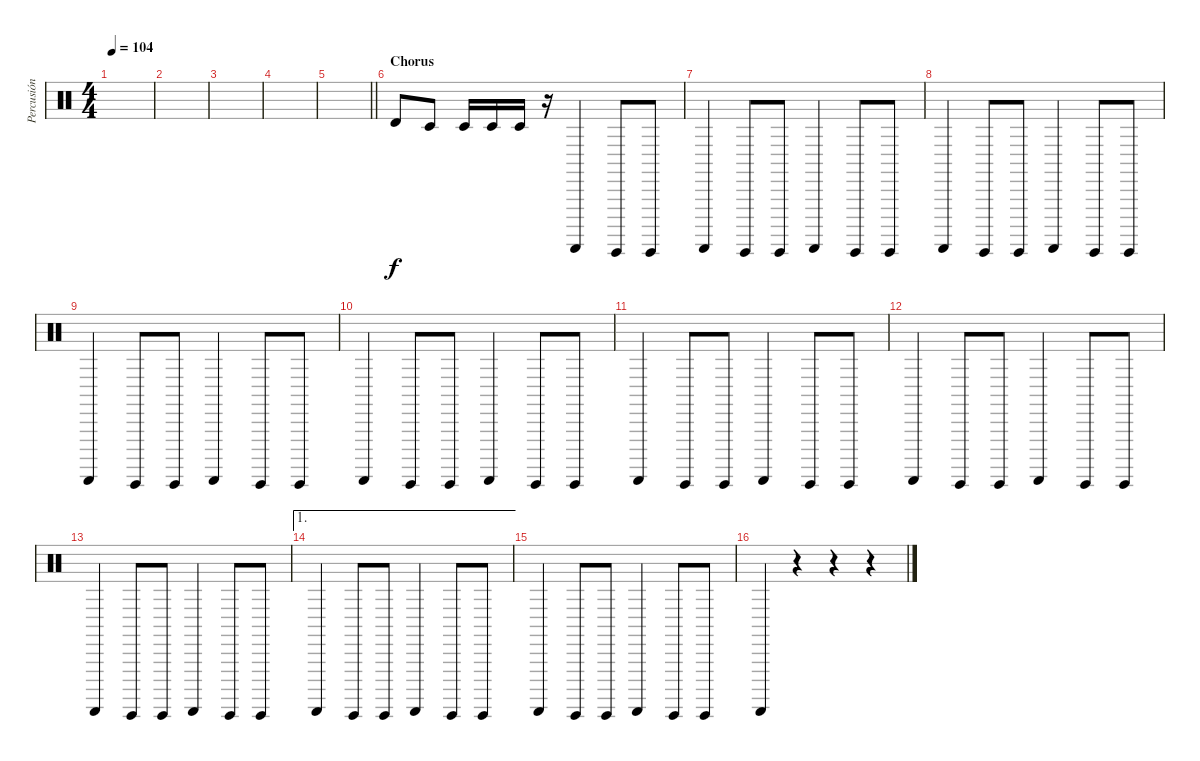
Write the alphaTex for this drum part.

\track ("Percusión" "Percusión") {instrument percussion}
\staff {score}
\articulation defaults
\ts (4 4)
\tempo 104
\clef neutral
\ks c
|
|
|
|
\barLineRight lightlight
|
\section ("" "Chorus")
"Timbale high (hit)".8 "Timbale low (hit)".8 "Timbale low (hit)".16 "Timbale low (hit)".16 "Timbale low (hit)".16 r.16 "Guiro (scrap-return)".4 "Guiro (hit)".8 "Guiro (hit)".8 |
"Guiro (scrap-return)".4 "Guiro (hit)".8 "Guiro (hit)".8 "Guiro (scrap-return)".4 "Guiro (hit)".8 "Guiro (hit)".8 |
"Guiro (scrap-return)".4 "Guiro (hit)".8 "Guiro (hit)".8 "Guiro (scrap-return)".4 "Guiro (hit)".8 "Guiro (hit)".8 |
"Guiro (scrap-return)".4 "Guiro (hit)".8 "Guiro (hit)".8 "Guiro (scrap-return)".4 "Guiro (hit)".8 "Guiro (hit)".8 |
"Guiro (scrap-return)".4 "Guiro (hit)".8 "Guiro (hit)".8 "Guiro (scrap-return)".4 "Guiro (hit)".8 "Guiro (hit)".8 |
"Guiro (scrap-return)".4 "Guiro (hit)".8 "Guiro (hit)".8 "Guiro (scrap-return)".4 "Guiro (hit)".8 "Guiro (hit)".8 |
"Guiro (scrap-return)".4 "Guiro (hit)".8 "Guiro (hit)".8 "Guiro (scrap-return)".4 "Guiro (hit)".8 "Guiro (hit)".8 |
"Guiro (scrap-return)".4 "Guiro (hit)".8 "Guiro (hit)".8 "Guiro (scrap-return)".4 "Guiro (hit)".8 "Guiro (hit)".8 |
\ae 1 "Guiro (scrap-return)".4 "Guiro (hit)".8 "Guiro (hit)".8 "Guiro (scrap-return)".4 "Guiro (hit)".8 "Guiro (hit)".8
|
"Guiro (scrap-return)".4 "Guiro (hit)".8 "Guiro (hit)".8 "Guiro (scrap-return)".4 "Guiro (hit)".8 "Guiro (hit)".8 |
"Guiro (scrap-return)".4 r.4 r.4 r.4
